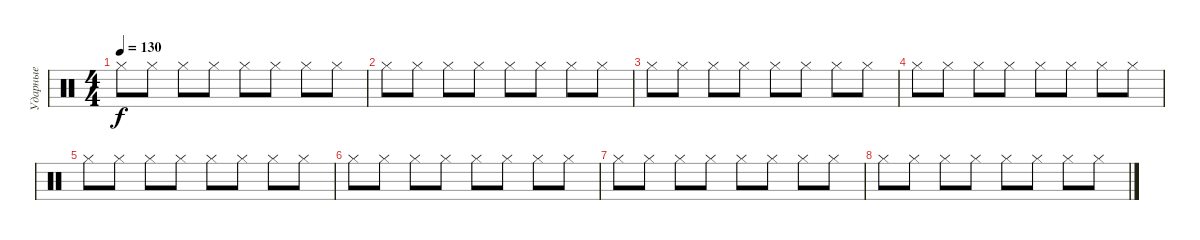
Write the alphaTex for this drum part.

\track ("Ударные" "Ударные") {instrument percussion}
\staff {score}
\articulation defaults
\ts (4 4)
\tempo 130
\clef neutral
\ks c "Hi-Hat (closed)".8{dy f} "Hi-Hat (closed)".8 "Hi-Hat (closed)".8 "Hi-Hat (closed)".8 "Hi-Hat (closed)".8 "Hi-Hat (closed)".8 "Hi-Hat (closed)".8 "Hi-Hat (closed)".8
|
"Hi-Hat (closed)".8 "Hi-Hat (closed)".8 "Hi-Hat (closed)".8 "Hi-Hat (closed)".8 "Hi-Hat (closed)".8 "Hi-Hat (closed)".8 "Hi-Hat (closed)".8 "Hi-Hat (closed)".8 |
"Hi-Hat (closed)".8 "Hi-Hat (closed)".8 "Hi-Hat (closed)".8 "Hi-Hat (closed)".8 "Hi-Hat (closed)".8 "Hi-Hat (closed)".8 "Hi-Hat (closed)".8 "Hi-Hat (closed)".8 |
"Hi-Hat (closed)".8 "Hi-Hat (closed)".8 "Hi-Hat (closed)".8 "Hi-Hat (closed)".8 "Hi-Hat (closed)".8 "Hi-Hat (closed)".8 "Hi-Hat (closed)".8 "Hi-Hat (closed)".8 |
"Hi-Hat (closed)".8 "Hi-Hat (closed)".8 "Hi-Hat (closed)".8 "Hi-Hat (closed)".8 "Hi-Hat (closed)".8 "Hi-Hat (closed)".8 "Hi-Hat (closed)".8 "Hi-Hat (closed)".8 |
"Hi-Hat (closed)".8 "Hi-Hat (closed)".8 "Hi-Hat (closed)".8 "Hi-Hat (closed)".8 "Hi-Hat (closed)".8 "Hi-Hat (closed)".8 "Hi-Hat (closed)".8 "Hi-Hat (closed)".8 |
"Hi-Hat (closed)".8 "Hi-Hat (closed)".8 "Hi-Hat (closed)".8 "Hi-Hat (closed)".8 "Hi-Hat (closed)".8 "Hi-Hat (closed)".8 "Hi-Hat (closed)".8 "Hi-Hat (closed)".8 |
"Hi-Hat (closed)".8 "Hi-Hat (closed)".8 "Hi-Hat (closed)".8 "Hi-Hat (closed)".8 "Hi-Hat (closed)".8 "Hi-Hat (closed)".8 "Hi-Hat (closed)".8 "Hi-Hat (closed)".8
